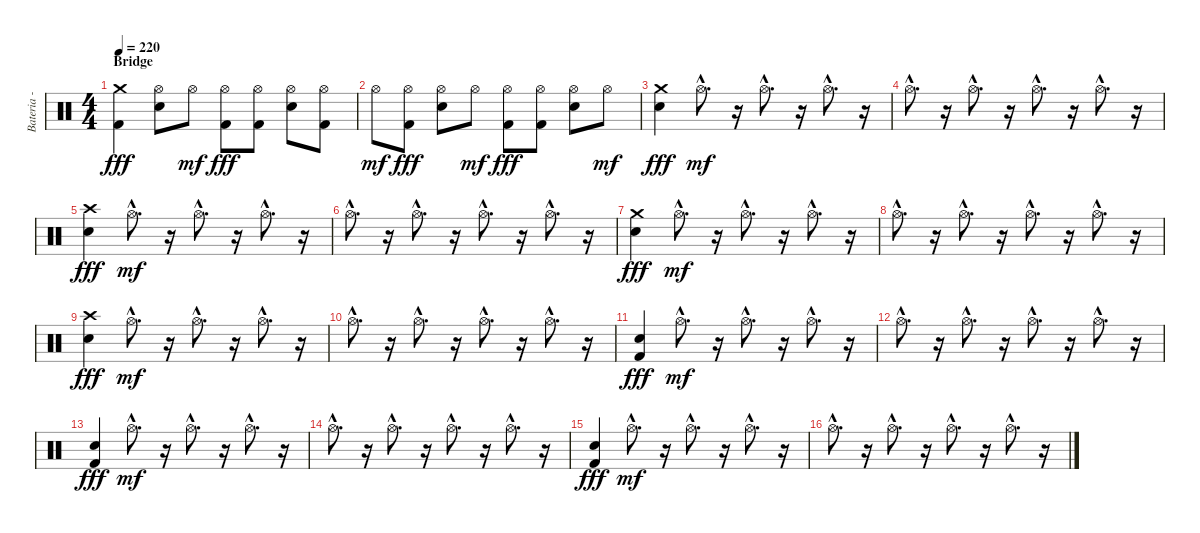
\track ("Bateria - Larzon" "Bateria - ") {instrument percussion}
\staff {score}
\articulation defaults
\ts (4 4)
\section ("" "Bridge")
\tempo 220
\clef neutral
\ks c
("Crash medium (hit)" "Kick (hit) 2").4{dy fff} ("Hi-Hat (open)" "Electric Snare (hit)").8 "Hi-Hat (open)".8{dy mf} ("Hi-Hat (open)" "Kick (hit) 2").8{dy fff} ("Hi-Hat (open)" "Kick (hit) 2").8 ("Hi-Hat (open)" "Electric Snare (hit)").8 ("Hi-Hat (open)" "Kick (hit) 2").8 |
"Hi-Hat (open)".8{dy mf} ("Hi-Hat (open)" "Kick (hit) 2").8{dy fff} ("Hi-Hat (open)" "Electric Snare (hit)").8 "Hi-Hat (open)".8{dy mf} ("Hi-Hat (open)" "Kick (hit) 2").8{dy fff} ("Hi-Hat (open)" "Kick (hit) 2").8 ("Hi-Hat (open)" "Electric Snare (hit)").8 "Hi-Hat (open)".8{dy mf} |
("Crash medium (hit)" "Snare (hit) 2").4{dy fff} "Hi-Hat (open)"{hac}.8{d dy mf} r.16 "Hi-Hat (open)"{hac}.8{d} r.16 "Hi-Hat (open)"{hac}.8{d} r.16 |
"Hi-Hat (open)"{hac}.8{d} r.16 "Hi-Hat (open)"{hac}.8{d} r.16 "Hi-Hat (open)"{hac}.8{d} r.16 "Hi-Hat (open)"{hac}.8{d} r.16 |
("Crash high (hit)" "Snare (hit) 2").4{dy fff} "Hi-Hat (open)"{hac}.8{d dy mf} r.16 "Hi-Hat (open)"{hac}.8{d} r.16 "Hi-Hat (open)"{hac}.8{d} r.16 |
"Hi-Hat (open)"{hac}.8{d} r.16 "Hi-Hat (open)"{hac}.8{d} r.16 "Hi-Hat (open)"{hac}.8{d} r.16 "Hi-Hat (open)"{hac}.8{d} r.16 |
("Crash medium (hit)" "Snare (hit) 2").4{dy fff} "Hi-Hat (open)"{hac}.8{d dy mf} r.16 "Hi-Hat (open)"{hac}.8{d} r.16 "Hi-Hat (open)"{hac}.8{d} r.16 |
"Hi-Hat (open)"{hac}.8{d} r.16 "Hi-Hat (open)"{hac}.8{d} r.16 "Hi-Hat (open)"{hac}.8{d} r.16 "Hi-Hat (open)"{hac}.8{d} r.16 |
("Crash high (hit)" "Snare (hit) 2").4{dy fff} "Hi-Hat (open)"{hac}.8{d dy mf} r.16 "Hi-Hat (open)"{hac}.8{d} r.16 "Hi-Hat (open)"{hac}.8{d} r.16 |
"Hi-Hat (open)"{hac}.8{d} r.16 "Hi-Hat (open)"{hac}.8{d} r.16 "Hi-Hat (open)"{hac}.8{d} r.16 "Hi-Hat (open)"{hac}.8{d} r.16 |
("Snare (hit) 2" "Kick (hit) 2").4{dy fff} "Hi-Hat (open)"{hac}.8{d dy mf} r.16 "Hi-Hat (open)"{hac}.8{d} r.16 "Hi-Hat (open)"{hac}.8{d} r.16 |
"Hi-Hat (open)"{hac}.8{d} r.16 "Hi-Hat (open)"{hac}.8{d} r.16 "Hi-Hat (open)"{hac}.8{d} r.16 "Hi-Hat (open)"{hac}.8{d} r.16 |
("Snare (hit) 2" "Kick (hit) 2").4{dy fff} "Hi-Hat (open)"{hac}.8{d dy mf} r.16 "Hi-Hat (open)"{hac}.8{d} r.16 "Hi-Hat (open)"{hac}.8{d} r.16 |
"Hi-Hat (open)"{hac}.8{d} r.16 "Hi-Hat (open)"{hac}.8{d} r.16 "Hi-Hat (open)"{hac}.8{d} r.16 "Hi-Hat (open)"{hac}.8{d} r.16 |
("Snare (hit) 2" "Kick (hit) 2").4{dy fff} "Hi-Hat (open)"{hac}.8{d dy mf} r.16 "Hi-Hat (open)"{hac}.8{d} r.16 "Hi-Hat (open)"{hac}.8{d} r.16 |
"Hi-Hat (open)"{hac}.8{d} r.16 "Hi-Hat (open)"{hac}.8{d} r.16 "Hi-Hat (open)"{hac}.8{d} r.16 "Hi-Hat (open)"{hac}.8{d} r.16
